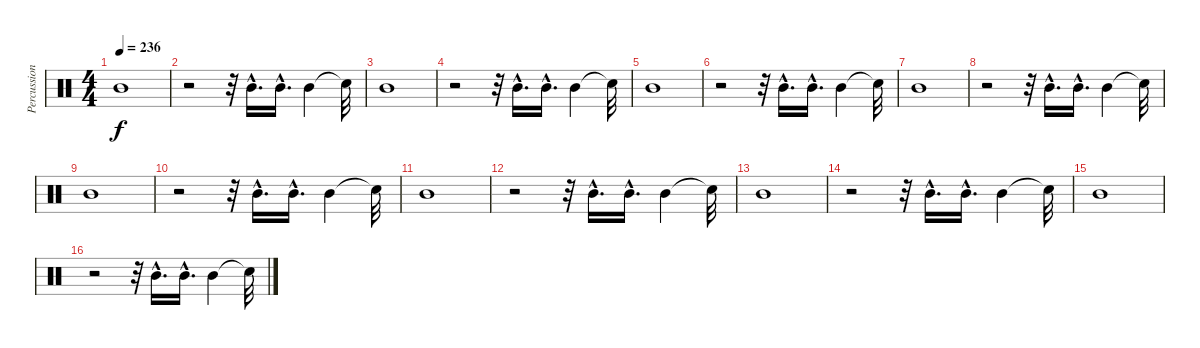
\track ("Percussions" "Percussion") {instrument percussion}
\staff {score}
\articulation defaults
\ts (4 4)
\tempo 236
\clef neutral
\ks c "Mid Tom (hit)".1{dy f}
|
r.2 r.32 "Mid Tom (hit)"{hac}.16{d} "Mid Tom (hit)"{hac}.16{d} "Mid Tom (hit)".4 "Snare (hit)"{t}.32 |
"Mid Tom (hit)".1 |
r.2 r.32 "Mid Tom (hit)"{hac}.16{d} "Mid Tom (hit)"{hac}.16{d} "Mid Tom (hit)".4 "Snare (hit)"{t}.32 |
"Mid Tom (hit)".1 |
r.2 r.32 "Mid Tom (hit)"{hac}.16{d} "Mid Tom (hit)"{hac}.16{d} "Mid Tom (hit)".4 "Snare (hit)"{t}.32 |
"Mid Tom (hit)".1 |
r.2 r.32 "Mid Tom (hit)"{hac}.16{d} "Mid Tom (hit)"{hac}.16{d} "Mid Tom (hit)".4 "Snare (hit)"{t}.32 |
"Mid Tom (hit)".1 |
r.2 r.32 "Mid Tom (hit)"{hac}.16{d} "Mid Tom (hit)"{hac}.16{d} "Mid Tom (hit)".4 "Snare (hit)"{t}.32 |
"Mid Tom (hit)".1 |
r.2 r.32 "Mid Tom (hit)"{hac}.16{d} "Mid Tom (hit)"{hac}.16{d} "Mid Tom (hit)".4 "Snare (hit)"{t}.32 |
"Mid Tom (hit)".1 |
r.2 r.32 "Mid Tom (hit)"{hac}.16{d} "Mid Tom (hit)"{hac}.16{d} "Mid Tom (hit)".4 "Snare (hit)"{t}.32 |
"Mid Tom (hit)".1 |
r.2 r.32 "Mid Tom (hit)"{hac}.16{d} "Mid Tom (hit)"{hac}.16{d} "Mid Tom (hit)".4 "Snare (hit)"{t}.32
